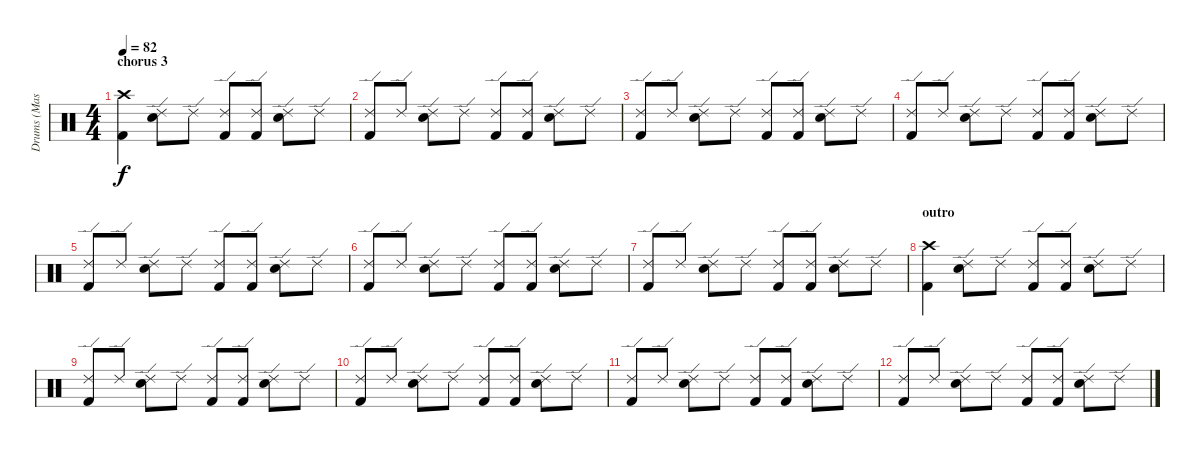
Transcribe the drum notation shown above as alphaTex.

\track ("Drums (Mason)" "Drums (Mas") {instrument percussion}
\staff {score}
\articulation defaults
\ts (4 4)
\section ("" "chorus 3")
\tempo 82
\clef neutral
\ks c
("Crash high (hit)" "Kick (hit) 2").4{dy f} ("Ride (edge) 2" "Electric Snare (hit)").8 "Ride (edge) 2".8 ("Ride (edge) 2" "Kick (hit) 2").8 ("Ride (edge) 2" "Kick (hit) 2").8 ("Ride (edge) 2" "Electric Snare (hit)").8 "Ride (edge) 2".8 |
("Ride (edge) 2" "Kick (hit) 2").8 "Ride (edge) 2".8 ("Ride (edge) 2" "Electric Snare (hit)").8 "Ride (edge) 2".8 ("Ride (edge) 2" "Kick (hit) 2").8 ("Ride (edge) 2" "Kick (hit) 2").8 ("Ride (edge) 2" "Electric Snare (hit)").8 "Ride (edge) 2".8 |
("Ride (edge) 2" "Kick (hit) 2").8 "Ride (edge) 2".8 ("Ride (edge) 2" "Electric Snare (hit)").8 "Ride (edge) 2".8 ("Ride (edge) 2" "Kick (hit) 2").8 ("Ride (edge) 2" "Kick (hit) 2").8 ("Ride (edge) 2" "Electric Snare (hit)").8 "Ride (edge) 2".8 |
("Ride (edge) 2" "Kick (hit) 2").8 "Ride (edge) 2".8 ("Ride (edge) 2" "Electric Snare (hit)").8 "Ride (edge) 2".8 ("Ride (edge) 2" "Kick (hit) 2").8 ("Ride (edge) 2" "Kick (hit) 2").8 ("Ride (edge) 2" "Electric Snare (hit)").8 "Ride (edge) 2".8 |
("Ride (edge) 2" "Kick (hit) 2").8 "Ride (edge) 2".8 ("Ride (edge) 2" "Electric Snare (hit)").8 "Ride (edge) 2".8 ("Ride (edge) 2" "Kick (hit) 2").8 ("Ride (edge) 2" "Kick (hit) 2").8 ("Ride (edge) 2" "Electric Snare (hit)").8 "Ride (edge) 2".8 |
("Ride (edge) 2" "Kick (hit) 2").8 "Ride (edge) 2".8 ("Ride (edge) 2" "Electric Snare (hit)").8 "Ride (edge) 2".8 ("Ride (edge) 2" "Kick (hit) 2").8 ("Ride (edge) 2" "Kick (hit) 2").8 ("Ride (edge) 2" "Electric Snare (hit)").8 "Ride (edge) 2".8 |
("Ride (edge) 2" "Kick (hit) 2").8 "Ride (edge) 2".8 ("Ride (edge) 2" "Electric Snare (hit)").8 "Ride (edge) 2".8 ("Ride (edge) 2" "Kick (hit) 2").8 ("Ride (edge) 2" "Kick (hit) 2").8 ("Ride (edge) 2" "Electric Snare (hit)").8 "Ride (edge) 2".8 |
\section ("" "outro")
("Crash high (hit)" "Kick (hit) 2").4 ("Ride (edge) 2" "Electric Snare (hit)").8 "Ride (edge) 2".8 ("Ride (edge) 2" "Kick (hit) 2").8 ("Ride (edge) 2" "Kick (hit) 2").8 ("Ride (edge) 2" "Electric Snare (hit)").8 "Ride (edge) 2".8 |
("Ride (edge) 2" "Kick (hit) 2").8 "Ride (edge) 2".8 ("Ride (edge) 2" "Electric Snare (hit)").8 "Ride (edge) 2".8 ("Ride (edge) 2" "Kick (hit) 2").8 ("Ride (edge) 2" "Kick (hit) 2").8 ("Ride (edge) 2" "Electric Snare (hit)").8 "Ride (edge) 2".8 |
("Ride (edge) 2" "Kick (hit) 2").8 "Ride (edge) 2".8 ("Ride (edge) 2" "Electric Snare (hit)").8 "Ride (edge) 2".8 ("Ride (edge) 2" "Kick (hit) 2").8 ("Ride (edge) 2" "Kick (hit) 2").8 ("Ride (edge) 2" "Electric Snare (hit)").8 "Ride (edge) 2".8 |
("Ride (edge) 2" "Kick (hit) 2").8 "Ride (edge) 2".8 ("Ride (edge) 2" "Electric Snare (hit)").8 "Ride (edge) 2".8 ("Ride (edge) 2" "Kick (hit) 2").8 ("Ride (edge) 2" "Kick (hit) 2").8 ("Ride (edge) 2" "Electric Snare (hit)").8 "Ride (edge) 2".8 |
("Ride (edge) 2" "Kick (hit) 2").8 "Ride (edge) 2".8 ("Ride (edge) 2" "Electric Snare (hit)").8 "Ride (edge) 2".8 ("Ride (edge) 2" "Kick (hit) 2").8 ("Ride (edge) 2" "Kick (hit) 2").8 ("Ride (edge) 2" "Electric Snare (hit)").8 "Ride (edge) 2".8
